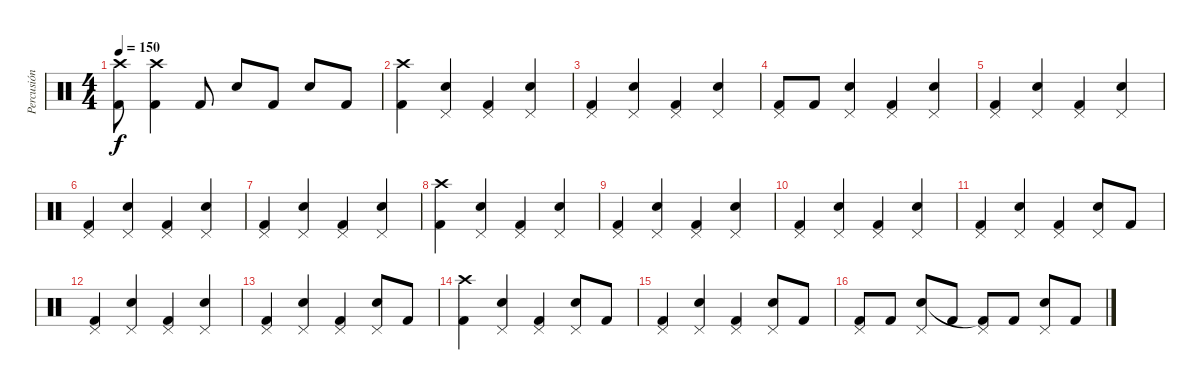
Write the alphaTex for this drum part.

\track ("Percusión" "Percusión") {instrument percussion}
\staff {score}
\articulation defaults
\ts (4 4)
\tempo 150
\clef neutral
\ks c
("Crash high (hit)" "Kick (hit) 2").8{dy f} ("Crash high (hit)" "Kick (hit) 2").4 "Kick (hit) 2".8 "Electric Snare (hit)".8 "Kick (hit) 2".8 "Electric Snare (hit)".8 "Kick (hit) 2".8 |
("Crash high (hit)" "Kick (hit) 2").4 ("Pedal Hi-Hat (hit)" "Electric Snare (hit)").4 ("Pedal Hi-Hat (hit)" "Kick (hit) 2").4 ("Pedal Hi-Hat (hit)" "Electric Snare (hit)").4 |
("Pedal Hi-Hat (hit)" "Kick (hit) 2").4 ("Pedal Hi-Hat (hit)" "Electric Snare (hit)").4 ("Pedal Hi-Hat (hit)" "Kick (hit) 2").4 ("Pedal Hi-Hat (hit)" "Electric Snare (hit)").4 |
("Pedal Hi-Hat (hit)" "Kick (hit) 2").8 "Kick (hit) 2".8 ("Pedal Hi-Hat (hit)" "Electric Snare (hit)").4 ("Pedal Hi-Hat (hit)" "Kick (hit) 2").4 ("Pedal Hi-Hat (hit)" "Electric Snare (hit)").4 |
("Pedal Hi-Hat (hit)" "Kick (hit) 2").4 ("Pedal Hi-Hat (hit)" "Electric Snare (hit)").4 ("Pedal Hi-Hat (hit)" "Kick (hit) 2").4 ("Pedal Hi-Hat (hit)" "Electric Snare (hit)").4 |
("Pedal Hi-Hat (hit)" "Kick (hit) 2").4 ("Pedal Hi-Hat (hit)" "Electric Snare (hit)").4 ("Pedal Hi-Hat (hit)" "Kick (hit) 2").4 ("Pedal Hi-Hat (hit)" "Electric Snare (hit)").4 |
("Pedal Hi-Hat (hit)" "Kick (hit) 2").4 ("Pedal Hi-Hat (hit)" "Electric Snare (hit)").4 ("Pedal Hi-Hat (hit)" "Kick (hit) 2").4 ("Pedal Hi-Hat (hit)" "Electric Snare (hit)").4 |
("Crash high (hit)" "Kick (hit) 2").4 ("Pedal Hi-Hat (hit)" "Electric Snare (hit)").4 ("Pedal Hi-Hat (hit)" "Kick (hit) 2").4 ("Pedal Hi-Hat (hit)" "Electric Snare (hit)").4 |
("Pedal Hi-Hat (hit)" "Kick (hit) 2").4 ("Pedal Hi-Hat (hit)" "Electric Snare (hit)").4 ("Pedal Hi-Hat (hit)" "Kick (hit) 2").4 ("Pedal Hi-Hat (hit)" "Electric Snare (hit)").4 |
("Pedal Hi-Hat (hit)" "Kick (hit) 2").4 ("Pedal Hi-Hat (hit)" "Electric Snare (hit)").4 ("Pedal Hi-Hat (hit)" "Kick (hit) 2").4 ("Pedal Hi-Hat (hit)" "Electric Snare (hit)").4 |
("Pedal Hi-Hat (hit)" "Kick (hit) 2").4 ("Pedal Hi-Hat (hit)" "Electric Snare (hit)").4 ("Pedal Hi-Hat (hit)" "Kick (hit) 2").4 ("Pedal Hi-Hat (hit)" "Electric Snare (hit)").8 "Kick (hit) 2".8 |
("Pedal Hi-Hat (hit)" "Kick (hit) 2").4 ("Pedal Hi-Hat (hit)" "Electric Snare (hit)").4 ("Pedal Hi-Hat (hit)" "Kick (hit) 2").4 ("Pedal Hi-Hat (hit)" "Electric Snare (hit)").4 |
("Pedal Hi-Hat (hit)" "Kick (hit) 2").4 ("Pedal Hi-Hat (hit)" "Electric Snare (hit)").4 ("Pedal Hi-Hat (hit)" "Kick (hit) 2").4 ("Pedal Hi-Hat (hit)" "Electric Snare (hit)").8 "Kick (hit) 2".8 |
("Crash high (hit)" "Kick (hit) 2").4 ("Pedal Hi-Hat (hit)" "Electric Snare (hit)").4 ("Pedal Hi-Hat (hit)" "Kick (hit) 2").4 ("Pedal Hi-Hat (hit)" "Electric Snare (hit)").8 "Kick (hit) 2".8 |
("Pedal Hi-Hat (hit)" "Kick (hit) 2").4 ("Pedal Hi-Hat (hit)" "Electric Snare (hit)").4 ("Pedal Hi-Hat (hit)" "Kick (hit) 2").4 ("Pedal Hi-Hat (hit)" "Electric Snare (hit)").8 "Kick (hit) 2".8 |
("Pedal Hi-Hat (hit)" "Kick (hit) 2").8 "Kick (hit) 2".8 ("Pedal Hi-Hat (hit)" "Electric Snare (hit)").8 "Kick (hit) 2".8 ("Pedal Hi-Hat (hit)" "Kick (hit) 2"{t}).8 "Kick (hit) 2".8 ("Pedal Hi-Hat (hit)" "Electric Snare (hit)").8 "Kick (hit) 2".8
